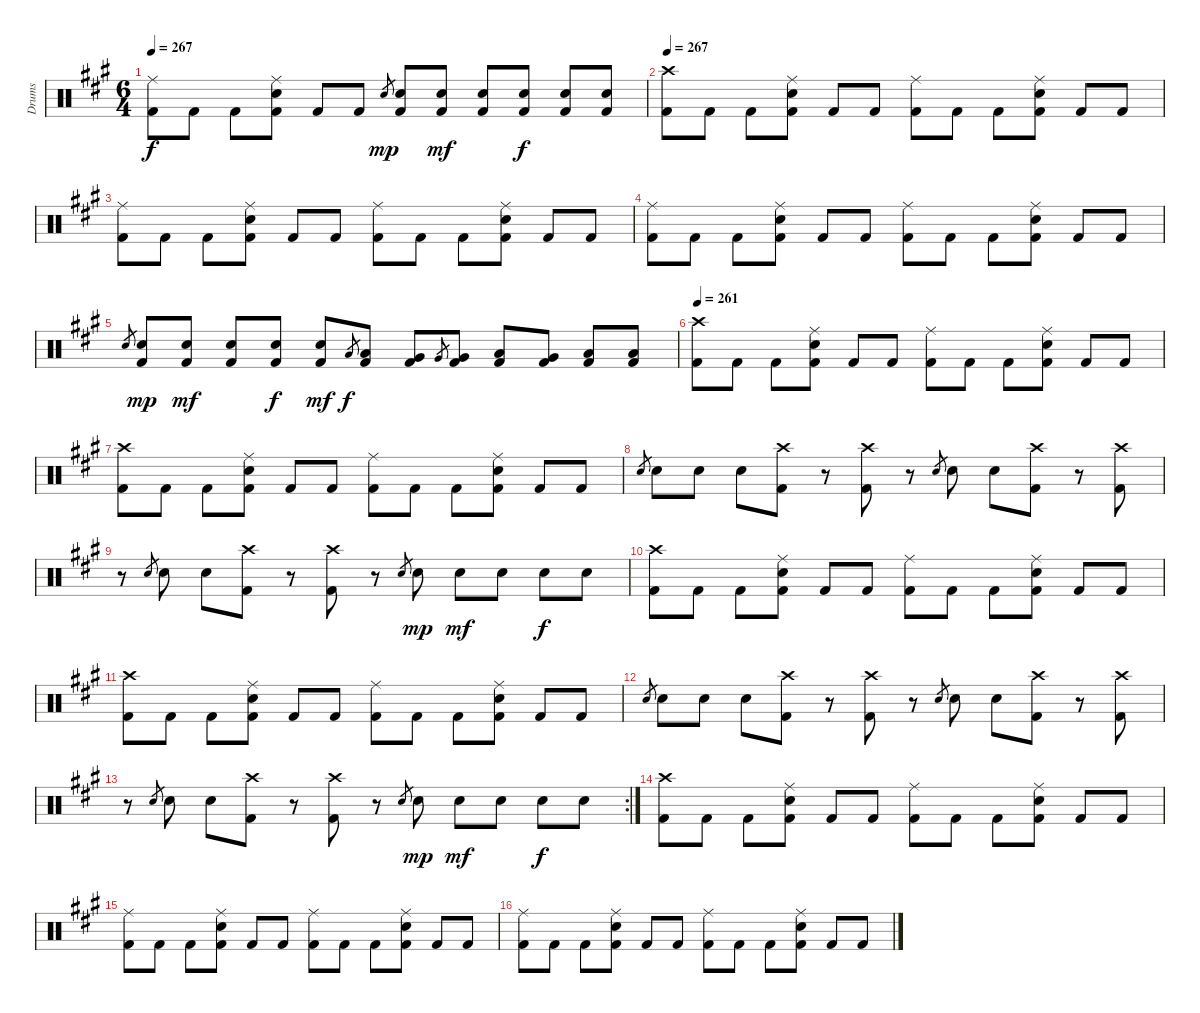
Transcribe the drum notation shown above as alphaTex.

\track ("Drums" "Drums") {instrument percussion}
\staff {score}
\articulation defaults
\ts (6 4)
\tempo 267
\clef neutral
\ks a
("Ride (middle)" "Kick (hit) 2").8{dy f} "Kick (hit) 2".8 "Kick (hit) 2".8 ("Ride (middle)" "Snare (hit) 2" "Kick (hit) 2").8 "Kick (hit) 2".8 "Kick (hit) 2".8 "Snare (hit) 2".8{gr dy mp} ("Snare (hit) 2" "Kick (hit) 2").8 ("Snare (hit) 2" "Kick (hit) 2").8{dy mf} ("Snare (hit) 2" "Kick (hit) 2").8 ("Snare (hit) 2" "Kick (hit) 2").8{dy f} ("Snare (hit) 2" "Kick (hit) 2").8 ("Snare (hit) 2" "Kick (hit) 2").8 |
\tempo 267
("Crash high (hit)" "Kick (hit) 2").8 "Kick (hit) 2".8 "Kick (hit) 2".8 ("Ride (middle)" "Snare (hit) 2" "Kick (hit) 2").8 "Kick (hit) 2".8 "Kick (hit) 2".8 ("Ride (middle)" "Kick (hit) 2").8 "Kick (hit) 2".8 "Kick (hit) 2".8 ("Ride (middle)" "Snare (hit) 2" "Kick (hit) 2").8 "Kick (hit) 2".8 "Kick (hit) 2".8 |
("Ride (middle)" "Kick (hit) 2").8 "Kick (hit) 2".8 "Kick (hit) 2".8 ("Ride (middle)" "Snare (hit) 2" "Kick (hit) 2").8 "Kick (hit) 2".8 "Kick (hit) 2".8 ("Ride (middle)" "Kick (hit) 2").8 "Kick (hit) 2".8 "Kick (hit) 2".8 ("Ride (middle)" "Snare (hit) 2" "Kick (hit) 2").8 "Kick (hit) 2".8 "Kick (hit) 2".8 |
("Ride (middle)" "Kick (hit) 2").8 "Kick (hit) 2".8 "Kick (hit) 2".8 ("Ride (middle)" "Snare (hit) 2" "Kick (hit) 2").8 "Kick (hit) 2".8 "Kick (hit) 2".8 ("Ride (middle)" "Kick (hit) 2").8 "Kick (hit) 2".8 "Kick (hit) 2".8 ("Ride (middle)" "Snare (hit) 2" "Kick (hit) 2").8 "Kick (hit) 2".8 "Kick (hit) 2".8 |
"Snare (hit) 2".8{gr} ("Snare (hit) 2" "Kick (hit) 2").8{dy mp} ("Snare (hit) 2" "Kick (hit) 2").8{dy mf} ("Snare (hit) 2" "Kick (hit) 2").8 ("Snare (hit) 2" "Kick (hit) 2").8{dy f} ("Snare (hit) 2" "Kick (hit) 2").8{dy mf} "Low Tom (hit)".8{gr dy f} ("Low Tom (hit)" "Kick (hit) 2").8 ("Very Low Tom (hit)" "Kick (hit) 2").8 "Very Low Tom (hit)".8{gr} ("Very Low Tom (hit)" "Kick (hit) 2").8 ("Low Tom (hit)" "Kick (hit) 2").8 ("Very Low Tom (hit)" "Kick (hit) 2").8 ("Low Floor Tom (hit)" "Kick (hit) 2").8 ("Low Floor Tom (hit)" "Kick (hit) 2").8 |
\tempo 261
("Crash high (hit)" "Kick (hit) 2").8 "Kick (hit) 2".8 "Kick (hit) 2".8 ("Ride (middle)" "Snare (hit) 2" "Kick (hit) 2").8 "Kick (hit) 2".8 "Kick (hit) 2".8 ("Ride (middle)" "Kick (hit) 2").8 "Kick (hit) 2".8 "Kick (hit) 2".8 ("Ride (middle)" "Snare (hit) 2" "Kick (hit) 2").8 "Kick (hit) 2".8 "Kick (hit) 2".8 |
("Crash high (hit)" "Kick (hit) 2").8 "Kick (hit) 2".8 "Kick (hit) 2".8 ("Ride (middle)" "Snare (hit) 2" "Kick (hit) 2").8 "Kick (hit) 2".8 "Kick (hit) 2".8 ("Ride (middle)" "Kick (hit) 2").8 "Kick (hit) 2".8 "Kick (hit) 2".8 ("Ride (middle)" "Snare (hit) 2" "Kick (hit) 2").8 "Kick (hit) 2".8 "Kick (hit) 2".8 |
"Snare (hit) 2".8{gr} "Snare (hit) 2".8 "Snare (hit) 2".8 "Snare (hit) 2".8 ("Crash high (hit)" "Kick (hit) 2").8 r.8 ("Crash high (hit)" "Kick (hit) 2").8 r.8 "Snare (hit) 2".8{gr} "Snare (hit) 2".8 "Snare (hit) 2".8 ("Crash high (hit)" "Kick (hit) 2").8 r.8 ("Crash high (hit)" "Kick (hit) 2").8 |
r.8 "Snare (hit) 2".8{gr} "Snare (hit) 2".8 "Snare (hit) 2".8 ("Crash high (hit)" "Kick (hit) 2").8 r.8 ("Crash high (hit)" "Kick (hit) 2").8 r.8 "Snare (hit) 2".8{gr} "Snare (hit) 2".8{dy mp} "Snare (hit) 2".8{dy mf} "Snare (hit) 2".8 "Snare (hit) 2".8{dy f} "Snare (hit) 2".8 |
("Crash high (hit)" "Kick (hit) 2").8 "Kick (hit) 2".8 "Kick (hit) 2".8 ("Ride (middle)" "Snare (hit) 2" "Kick (hit) 2").8 "Kick (hit) 2".8 "Kick (hit) 2".8 ("Ride (middle)" "Kick (hit) 2").8 "Kick (hit) 2".8 "Kick (hit) 2".8 ("Ride (middle)" "Snare (hit) 2" "Kick (hit) 2").8 "Kick (hit) 2".8 "Kick (hit) 2".8 |
("Crash high (hit)" "Kick (hit) 2").8 "Kick (hit) 2".8 "Kick (hit) 2".8 ("Ride (middle)" "Snare (hit) 2" "Kick (hit) 2").8 "Kick (hit) 2".8 "Kick (hit) 2".8 ("Ride (middle)" "Kick (hit) 2").8 "Kick (hit) 2".8 "Kick (hit) 2".8 ("Ride (middle)" "Snare (hit) 2" "Kick (hit) 2").8 "Kick (hit) 2".8 "Kick (hit) 2".8 |
"Snare (hit) 2".8{gr} "Snare (hit) 2".8 "Snare (hit) 2".8 "Snare (hit) 2".8 ("Crash high (hit)" "Kick (hit) 2").8 r.8 ("Crash high (hit)" "Kick (hit) 2").8 r.8 "Snare (hit) 2".8{gr} "Snare (hit) 2".8 "Snare (hit) 2".8 ("Crash high (hit)" "Kick (hit) 2").8 r.8 ("Crash high (hit)" "Kick (hit) 2").8 |
\rc 2
r.8 "Snare (hit) 2".8{gr} "Snare (hit) 2".8 "Snare (hit) 2".8 ("Crash high (hit)" "Kick (hit) 2").8 r.8 ("Crash high (hit)" "Kick (hit) 2").8 r.8 "Snare (hit) 2".8{gr} "Snare (hit) 2".8{dy mp} "Snare (hit) 2".8{dy mf} "Snare (hit) 2".8 "Snare (hit) 2".8{dy f} "Snare (hit) 2".8 |
("Crash high (hit)" "Kick (hit) 2").8 "Kick (hit) 2".8 "Kick (hit) 2".8 ("Ride (middle)" "Snare (hit) 2" "Kick (hit) 2").8 "Kick (hit) 2".8 "Kick (hit) 2".8 ("Ride (middle)" "Kick (hit) 2").8 "Kick (hit) 2".8 "Kick (hit) 2".8 ("Ride (middle)" "Snare (hit) 2" "Kick (hit) 2").8 "Kick (hit) 2".8 "Kick (hit) 2".8 |
("Ride (middle)" "Kick (hit) 2").8 "Kick (hit) 2".8 "Kick (hit) 2".8 ("Ride (middle)" "Snare (hit) 2" "Kick (hit) 2").8 "Kick (hit) 2".8 "Kick (hit) 2".8 ("Ride (middle)" "Kick (hit) 2").8 "Kick (hit) 2".8 "Kick (hit) 2".8 ("Ride (middle)" "Snare (hit) 2" "Kick (hit) 2").8 "Kick (hit) 2".8 "Kick (hit) 2".8 |
("Ride (middle)" "Kick (hit) 2").8 "Kick (hit) 2".8 "Kick (hit) 2".8 ("Ride (middle)" "Snare (hit) 2" "Kick (hit) 2").8 "Kick (hit) 2".8 "Kick (hit) 2".8 ("Ride (middle)" "Kick (hit) 2").8 "Kick (hit) 2".8 "Kick (hit) 2".8 ("Ride (middle)" "Snare (hit) 2" "Kick (hit) 2").8 "Kick (hit) 2".8 "Kick (hit) 2".8
